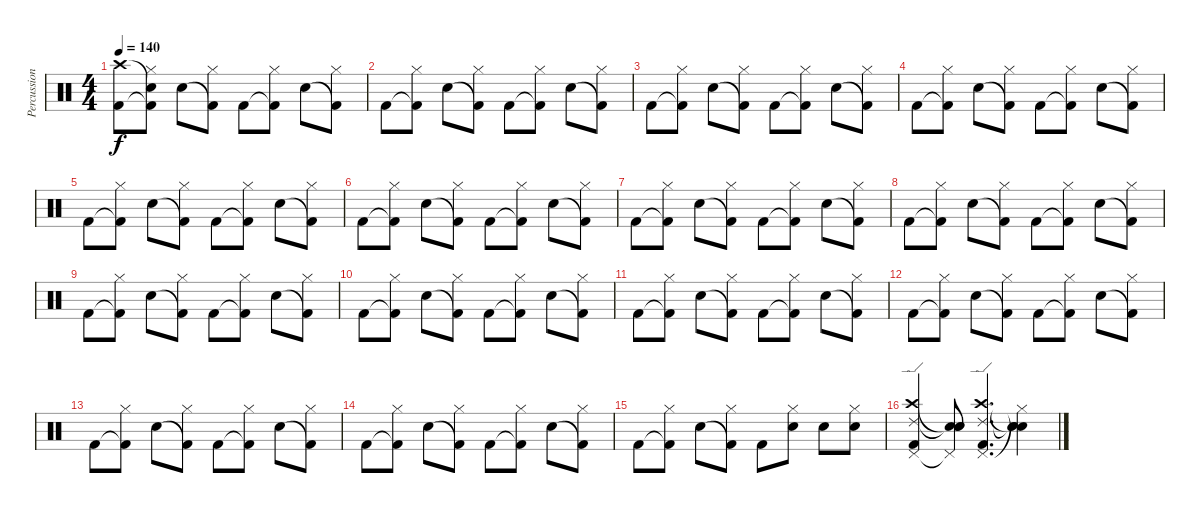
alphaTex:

\track ("Percussion" "Percussion") {instrument percussion}
\staff {score}
\articulation defaults
\ts (4 4)
\tempo 140
\clef neutral
\ks c
("Kick (hit) 2" "Crash high (hit)").8{dy f} ("Kick (hit) 2"{t} "Snare (hit)"{t} "Hi-Hat (closed)").8 "Snare (hit) 2".8 ("Kick (hit) 2"{t} "Hi-Hat (closed)").8 "Kick (hit) 2".8 ("Kick (hit) 2"{t} "Hi-Hat (closed)").8 "Snare (hit) 2".8 ("Kick (hit) 2"{t} "Hi-Hat (closed)").8 |
"Kick (hit) 2".8 ("Kick (hit) 2"{t} "Hi-Hat (closed)").8 "Snare (hit) 2".8 ("Kick (hit) 2"{t} "Hi-Hat (closed)").8 "Kick (hit) 2".8 ("Kick (hit) 2"{t} "Hi-Hat (closed)").8 "Snare (hit) 2".8 ("Kick (hit) 2"{t} "Hi-Hat (closed)").8 |
"Kick (hit) 2".8 ("Kick (hit) 2"{t} "Hi-Hat (closed)").8 "Snare (hit) 2".8 ("Kick (hit) 2"{t} "Hi-Hat (closed)").8 "Kick (hit) 2".8 ("Kick (hit) 2"{t} "Hi-Hat (closed)").8 "Snare (hit) 2".8 ("Kick (hit) 2"{t} "Hi-Hat (closed)").8 |
"Kick (hit) 2".8 ("Kick (hit) 2"{t} "Hi-Hat (closed)").8 "Snare (hit) 2".8 ("Kick (hit) 2"{t} "Hi-Hat (closed)").8 "Kick (hit) 2".8 ("Kick (hit) 2"{t} "Hi-Hat (closed)").8 "Snare (hit) 2".8 ("Kick (hit) 2"{t} "Hi-Hat (closed)").8 |
"Kick (hit) 2".8 ("Kick (hit) 2"{t} "Hi-Hat (closed)").8 "Snare (hit) 2".8 ("Kick (hit) 2"{t} "Hi-Hat (closed)").8 "Kick (hit) 2".8 ("Kick (hit) 2"{t} "Hi-Hat (closed)").8 "Snare (hit) 2".8 ("Kick (hit) 2"{t} "Hi-Hat (closed)").8 |
"Kick (hit) 2".8 ("Kick (hit) 2"{t} "Hi-Hat (closed)").8 "Snare (hit) 2".8 ("Kick (hit) 2"{t} "Hi-Hat (closed)").8 "Kick (hit) 2".8 ("Kick (hit) 2"{t} "Hi-Hat (closed)").8 "Snare (hit) 2".8 ("Kick (hit) 2"{t} "Hi-Hat (closed)").8 |
"Kick (hit) 2".8 ("Kick (hit) 2"{t} "Hi-Hat (closed)").8 "Snare (hit) 2".8 ("Kick (hit) 2"{t} "Hi-Hat (closed)").8 "Kick (hit) 2".8 ("Kick (hit) 2"{t} "Hi-Hat (closed)").8 "Snare (hit) 2".8 ("Kick (hit) 2"{t} "Hi-Hat (closed)").8 |
"Kick (hit) 2".8 ("Kick (hit) 2"{t} "Hi-Hat (closed)").8 "Snare (hit) 2".8 ("Kick (hit) 2"{t} "Hi-Hat (closed)").8 "Kick (hit) 2".8 ("Kick (hit) 2"{t} "Hi-Hat (closed)").8 "Snare (hit) 2".8 ("Kick (hit) 2"{t} "Hi-Hat (closed)").8 |
"Kick (hit) 2".8 ("Kick (hit) 2"{t} "Hi-Hat (closed)").8 "Snare (hit) 2".8 ("Kick (hit) 2"{t} "Hi-Hat (closed)").8 "Kick (hit) 2".8 ("Kick (hit) 2"{t} "Hi-Hat (closed)").8 "Snare (hit) 2".8 ("Kick (hit) 2"{t} "Hi-Hat (closed)").8 |
"Kick (hit) 2".8 ("Kick (hit) 2"{t} "Hi-Hat (closed)").8 "Snare (hit) 2".8 ("Kick (hit) 2"{t} "Hi-Hat (closed)").8 "Kick (hit) 2".8 ("Kick (hit) 2"{t} "Hi-Hat (closed)").8 "Snare (hit) 2".8 ("Kick (hit) 2"{t} "Hi-Hat (closed)").8 |
"Kick (hit) 2".8 ("Kick (hit) 2"{t} "Hi-Hat (closed)").8 "Snare (hit) 2".8 ("Kick (hit) 2"{t} "Hi-Hat (closed)").8 "Kick (hit) 2".8 ("Kick (hit) 2"{t} "Hi-Hat (closed)").8 "Snare (hit) 2".8 ("Kick (hit) 2"{t} "Hi-Hat (closed)").8 |
"Kick (hit) 2".8 ("Kick (hit) 2"{t} "Hi-Hat (closed)").8 "Snare (hit) 2".8 ("Kick (hit) 2"{t} "Hi-Hat (closed)").8 "Kick (hit) 2".8 ("Kick (hit) 2"{t} "Hi-Hat (closed)").8 "Snare (hit) 2".8 ("Kick (hit) 2"{t} "Hi-Hat (closed)").8 |
"Kick (hit) 2".8 ("Kick (hit) 2"{t} "Hi-Hat (closed)").8 "Snare (hit) 2".8 ("Kick (hit) 2"{t} "Hi-Hat (closed)").8 "Kick (hit) 2".8 ("Kick (hit) 2"{t} "Hi-Hat (closed)").8 "Snare (hit) 2".8 ("Kick (hit) 2"{t} "Hi-Hat (closed)").8 |
"Kick (hit) 2".8 ("Kick (hit) 2"{t} "Hi-Hat (closed)").8 "Snare (hit) 2".8 ("Kick (hit) 2"{t} "Hi-Hat (closed)").8 "Kick (hit) 2".8 ("Kick (hit) 2"{t} "Hi-Hat (closed)").8 "Snare (hit) 2".8 ("Kick (hit) 2"{t} "Hi-Hat (closed)").8 |
"Kick (hit) 2".8 ("Kick (hit) 2"{t} "Hi-Hat (closed)").8 "Snare (hit) 2".8 ("Kick (hit) 2"{t} "Hi-Hat (closed)").8 "Kick (hit) 2".8 ("Snare (hit) 2" "Hi-Hat (closed)").8 "Snare (hit) 2".8 ("Snare (hit) 2" "Hi-Hat (closed)").8 |
("Kick (hit) 2" "Crash high (hit)" "Ride (edge) 2" "Pedal Hi-Hat (hit)").4 ("Snare (hit) 2" "Snare (hit)"{t} "Snare (hit)"{t} "Pedal Hi-Hat (hit)"{t}).8 ("Kick (hit) 2" "Crash high (hit)" "Ride (edge) 2" "Pedal Hi-Hat (hit)").4{d} ("Snare (hit) 2" "Snare (hit)"{t} "Snare (hit)"{t} "Hi-Hat (closed)"{t}).4
